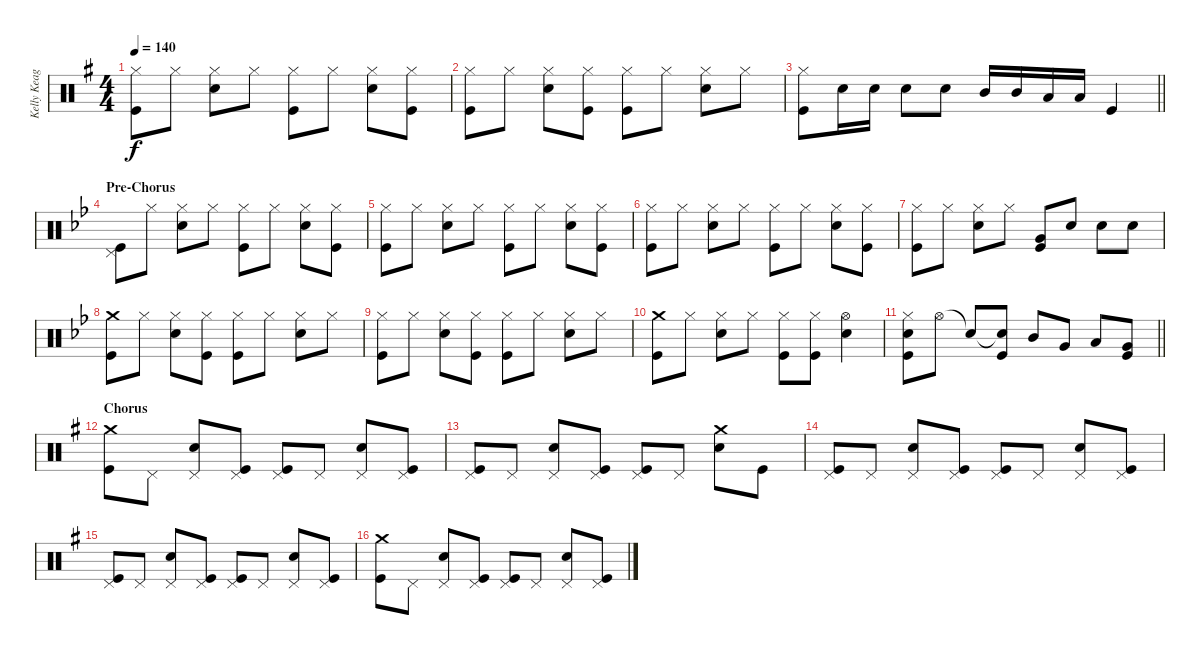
\track ("Kelly Keagy" "Kelly Keag") {instrument percussion}
\staff {score}
\articulation defaults
\ts (4 4)
\tempo 140
\clef neutral
\ks g
("Hi-Hat (closed)" "Kick (hit)").8{dy f} "Hi-Hat (closed)".8 ("Hi-Hat (closed)" "Snare (hit) 2").8 "Hi-Hat (closed)".8 ("Hi-Hat (closed)" "Kick (hit)").8 "Hi-Hat (closed)".8 ("Hi-Hat (closed)" "Snare (hit) 2").8 ("Hi-Hat (closed)" "Kick (hit)").8 |
("Hi-Hat (closed)" "Kick (hit)").8 "Hi-Hat (closed)".8 ("Hi-Hat (closed)" "Snare (hit) 2").8 ("Hi-Hat (closed)" "Kick (hit)").8 ("Hi-Hat (closed)" "Kick (hit)").8 "Hi-Hat (closed)".8 ("Hi-Hat (closed)" "Snare (hit) 2").8 "Hi-Hat (closed)".8 |
\barLineRight lightlight
("Hi-Hat (closed)" "Kick (hit)").8 "Snare (hit) 2".16 "Snare (hit) 2".16 "Snare (hit) 2".8 "Snare (hit) 2".8 "Mid Tom (hit)".16 "Mid Tom (hit)".16 "Low Tom (hit)".16 "Low Tom (hit)".16 "Kick (hit)".4 |
\section ("" "Pre-Chorus")
\ks bb
("Pedal Hi-Hat (hit)" "Kick (hit)").8 "Hi-Hat (closed)".8 ("Hi-Hat (closed)" "Snare (hit) 2").8 "Hi-Hat (closed)".8 ("Hi-Hat (closed)" "Kick (hit)").8 "Hi-Hat (closed)".8 ("Hi-Hat (closed)" "Snare (hit) 2").8 ("Hi-Hat (closed)" "Kick (hit)").8 |
("Hi-Hat (closed)" "Kick (hit)").8 "Hi-Hat (closed)".8 ("Hi-Hat (closed)" "Snare (hit) 2").8 "Hi-Hat (closed)".8 ("Hi-Hat (closed)" "Kick (hit)").8 "Hi-Hat (closed)".8 ("Hi-Hat (closed)" "Snare (hit) 2").8 ("Hi-Hat (closed)" "Kick (hit)").8 |
("Hi-Hat (closed)" "Kick (hit)").8 "Hi-Hat (closed)".8 ("Hi-Hat (closed)" "Snare (hit) 2").8 "Hi-Hat (closed)".8 ("Hi-Hat (closed)" "Kick (hit)").8 "Hi-Hat (closed)".8 ("Hi-Hat (closed)" "Snare (hit) 2").8 ("Hi-Hat (closed)" "Kick (hit)").8 |
("Hi-Hat (closed)" "Kick (hit)").8 "Hi-Hat (closed)".8 ("Hi-Hat (closed)" "Snare (hit) 2").8 "Hi-Hat (closed)".8 ("Very Low Tom (hit)" "Kick (hit)").8 "Snare (hit) 2".8 "Snare (hit) 2".8 "Snare (hit) 2".8 |
("Crash medium (hit)" "Kick (hit)").8 "Hi-Hat (closed)".8 ("Hi-Hat (closed)" "Snare (hit) 2").8 ("Hi-Hat (closed)" "Kick (hit)").8 ("Hi-Hat (closed)" "Kick (hit)").8 "Hi-Hat (closed)".8 ("Hi-Hat (closed)" "Snare (hit) 2").8 "Hi-Hat (closed)".8 |
("Hi-Hat (closed)" "Kick (hit)").8 "Hi-Hat (closed)".8 ("Hi-Hat (closed)" "Snare (hit) 2").8 ("Hi-Hat (closed)" "Kick (hit)").8 ("Hi-Hat (closed)" "Kick (hit)").8 "Hi-Hat (closed)".8 ("Hi-Hat (closed)" "Snare (hit) 2").8 "Hi-Hat (closed)".8 |
("Crash medium (hit)" "Kick (hit)").8 "Hi-Hat (closed)".8 ("Hi-Hat (closed)" "Snare (hit) 2").8 "Hi-Hat (closed)".8 ("Hi-Hat (closed)" "Kick (hit)").8 ("Hi-Hat (closed)" "Kick (hit)").8 ("Hi-Hat (open)" "Snare (hit) 2").4 |
\barLineRight lightlight
("Hi-Hat (closed)" "Snare (hit) 2" "Kick (hit)").8 "Hi-Hat (open)".8 "Snare (hit)"{t}.8 ("Snare (hit)"{t} "Kick (hit)").8 "Mid Tom (hit)".8 "Very Low Tom (hit)".8 "Low Tom (hit)".8 ("Very Low Tom (hit)" "Kick (hit)").8 |
\section ("" "Chorus")
\ks g
("Crash medium (hit)" "Kick (hit)").8 "Pedal Hi-Hat (hit)".8 ("Pedal Hi-Hat (hit)" "Snare (hit) 2").8 ("Pedal Hi-Hat (hit)" "Kick (hit)").8 ("Pedal Hi-Hat (hit)" "Kick (hit)").8 "Pedal Hi-Hat (hit)".8 ("Pedal Hi-Hat (hit)" "Snare (hit) 2").8 ("Pedal Hi-Hat (hit)" "Kick (hit)").8 |
("Pedal Hi-Hat (hit)" "Kick (hit)").8 "Pedal Hi-Hat (hit)".8 ("Pedal Hi-Hat (hit)" "Snare (hit) 2").8 ("Pedal Hi-Hat (hit)" "Kick (hit)").8 ("Pedal Hi-Hat (hit)" "Kick (hit)").8 "Pedal Hi-Hat (hit)".8 ("Crash medium (hit)" "Snare (hit) 2").8 "Kick (hit)".8 |
("Pedal Hi-Hat (hit)" "Kick (hit)").8 "Pedal Hi-Hat (hit)".8 ("Pedal Hi-Hat (hit)" "Snare (hit) 2").8 ("Pedal Hi-Hat (hit)" "Kick (hit)").8 ("Pedal Hi-Hat (hit)" "Kick (hit)").8 "Pedal Hi-Hat (hit)".8 ("Pedal Hi-Hat (hit)" "Snare (hit) 2").8 ("Pedal Hi-Hat (hit)" "Kick (hit)").8 |
("Pedal Hi-Hat (hit)" "Kick (hit)").8 "Pedal Hi-Hat (hit)".8 ("Pedal Hi-Hat (hit)" "Snare (hit) 2").8 ("Pedal Hi-Hat (hit)" "Kick (hit)").8 ("Pedal Hi-Hat (hit)" "Kick (hit)").8 "Pedal Hi-Hat (hit)".8 ("Pedal Hi-Hat (hit)" "Snare (hit) 2").8 ("Pedal Hi-Hat (hit)" "Kick (hit)").8 |
("Crash medium (hit)" "Kick (hit)").8 "Pedal Hi-Hat (hit)".8 ("Pedal Hi-Hat (hit)" "Snare (hit) 2").8 ("Pedal Hi-Hat (hit)" "Kick (hit)").8 ("Pedal Hi-Hat (hit)" "Kick (hit)").8 "Pedal Hi-Hat (hit)".8 ("Pedal Hi-Hat (hit)" "Snare (hit) 2").8 ("Pedal Hi-Hat (hit)" "Kick (hit)").8
